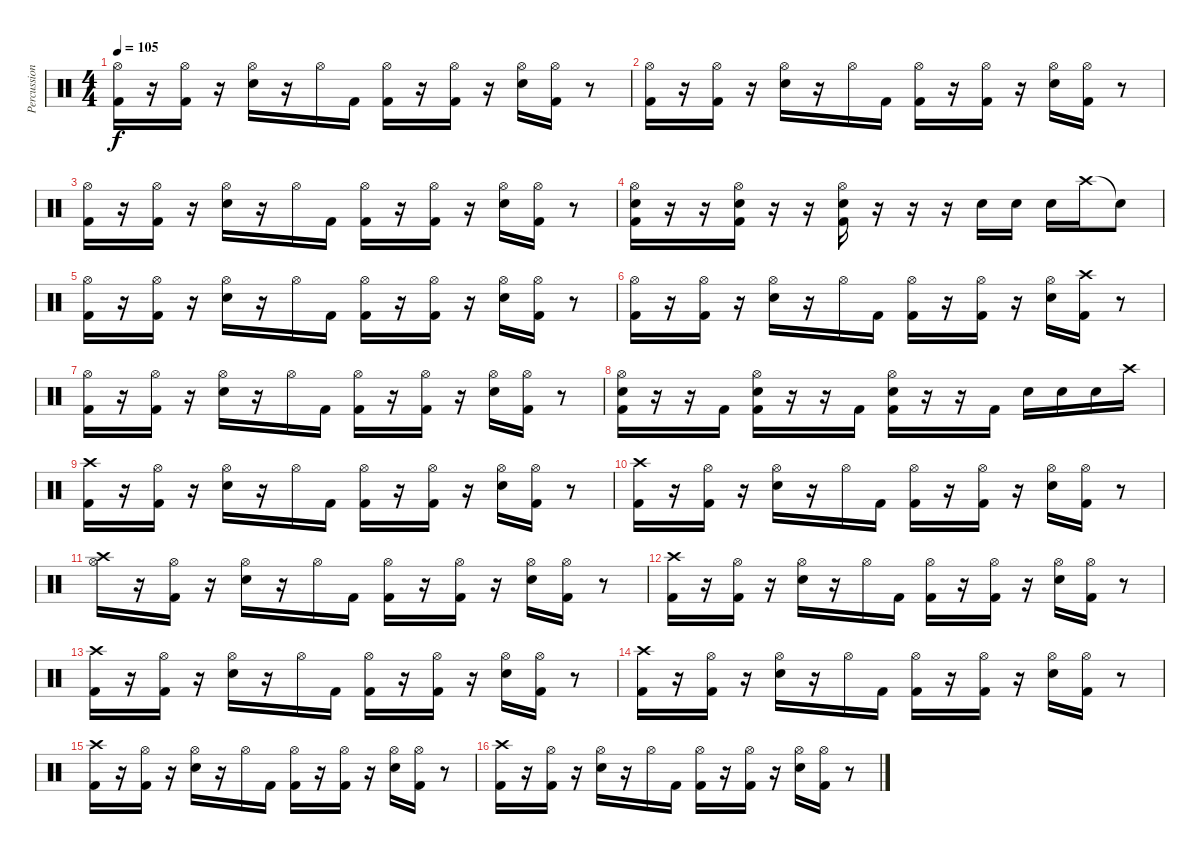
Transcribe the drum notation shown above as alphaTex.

\track ("Percussions" "Percussion") {instrument percussion}
\staff {score}
\articulation defaults
\ts (4 4)
\tempo 105
\clef neutral
\ks c
("Hi-Hat (open)" "Kick (hit) 2").16{dy f} r.16 ("Hi-Hat (open)" "Kick (hit) 2").16 r.16 ("Hi-Hat (open)" "Snare (hit) 2").16 r.16 "Hi-Hat (open)".16 "Kick (hit) 2".16 ("Kick (hit) 2" "Hi-Hat (open)").16 r.16 ("Kick (hit) 2" "Hi-Hat (open)").16 r.16 ("Hi-Hat (open)" "Snare (hit) 2").16 ("Kick (hit) 2" "Hi-Hat (open)").16 r.8 |
("Hi-Hat (open)" "Kick (hit) 2").16 r.16 ("Hi-Hat (open)" "Kick (hit) 2").16 r.16 ("Hi-Hat (open)" "Snare (hit) 2").16 r.16 "Hi-Hat (open)".16 "Kick (hit) 2".16 ("Kick (hit) 2" "Hi-Hat (open)").16 r.16 ("Kick (hit) 2" "Hi-Hat (open)").16 r.16 ("Hi-Hat (open)" "Snare (hit) 2").16 ("Kick (hit) 2" "Hi-Hat (open)").16 r.8 |
("Hi-Hat (open)" "Kick (hit) 2").16 r.16 ("Hi-Hat (open)" "Kick (hit) 2").16 r.16 ("Hi-Hat (open)" "Snare (hit) 2").16 r.16 "Hi-Hat (open)".16 "Kick (hit) 2".16 ("Kick (hit) 2" "Hi-Hat (open)").16 r.16 ("Kick (hit) 2" "Hi-Hat (open)").16 r.16 ("Hi-Hat (open)" "Snare (hit) 2").16 ("Kick (hit) 2" "Hi-Hat (open)").16 r.8 |
("Kick (hit) 2" "Snare (hit) 2" "Hi-Hat (open)").16 r.16 r.16 ("Kick (hit) 2" "Snare (hit) 2" "Hi-Hat (open)").16 r.16 r.16 ("Kick (hit) 2" "Snare (hit) 2" "Hi-Hat (open)").16 r.16 r.16 r.16 "Snare (hit) 2".16 "Snare (hit) 2".16 "Snare (hit) 2".16 "Crash high (hit)".16 "Snare (hit)"{t}.8 |
("Hi-Hat (open)" "Kick (hit) 2").16 r.16 ("Hi-Hat (open)" "Kick (hit) 2").16 r.16 ("Hi-Hat (open)" "Snare (hit) 2").16 r.16 "Hi-Hat (open)".16 "Kick (hit) 2".16 ("Kick (hit) 2" "Hi-Hat (open)").16 r.16 ("Kick (hit) 2" "Hi-Hat (open)").16 r.16 ("Hi-Hat (open)" "Snare (hit) 2").16 ("Hi-Hat (open)" "Kick (hit) 2").16 r.8 |
("Hi-Hat (open)" "Kick (hit) 2").16 r.16 ("Hi-Hat (open)" "Kick (hit) 2").16 r.16 ("Hi-Hat (open)" "Snare (hit) 2").16 r.16 "Hi-Hat (open)".16 "Kick (hit) 2".16 ("Kick (hit) 2" "Hi-Hat (open)").16 r.16 ("Kick (hit) 2" "Hi-Hat (open)").16 r.16 ("Hi-Hat (open)" "Snare (hit) 2").16 ("Kick (hit) 2" "Crash high (hit)").16 r.8 |
("Hi-Hat (open)" "Kick (hit) 2").16 r.16 ("Hi-Hat (open)" "Kick (hit) 2").16 r.16 ("Hi-Hat (open)" "Snare (hit) 2").16 r.16 "Hi-Hat (open)".16 "Kick (hit) 2".16 ("Kick (hit) 2" "Hi-Hat (open)").16 r.16 ("Kick (hit) 2" "Hi-Hat (open)").16 r.16 ("Hi-Hat (open)" "Snare (hit) 2").16 ("Kick (hit) 2" "Hi-Hat (open)").16 r.8 |
("Kick (hit) 2" "Snare (hit) 2" "Hi-Hat (open)").16 r.16 r.16 "Kick (hit) 2".16 ("Kick (hit) 2" "Snare (hit) 2" "Hi-Hat (open)").16 r.16 r.16 "Kick (hit) 2".16 ("Kick (hit) 2" "Snare (hit) 2" "Hi-Hat (open)").16 r.16 r.16 "Kick (hit) 2".16 "Snare (hit) 2".16 "Snare (hit) 2".16 "Snare (hit) 2".16 "Crash high (hit)".16 |
("Crash high (hit)" "Kick (hit) 2").16 r.16 ("Hi-Hat (open)" "Kick (hit) 2").16 r.16 ("Hi-Hat (open)" "Snare (hit) 2").16 r.16 "Hi-Hat (open)".16 "Kick (hit) 2".16 ("Kick (hit) 2" "Hi-Hat (open)").16 r.16 ("Kick (hit) 2" "Hi-Hat (open)").16 r.16 ("Hi-Hat (open)" "Snare (hit) 2").16 ("Kick (hit) 2" "Hi-Hat (open)").16 r.8 |
("Crash high (hit)" "Kick (hit) 2").16 r.16 ("Hi-Hat (open)" "Kick (hit) 2").16 r.16 ("Hi-Hat (open)" "Snare (hit) 2").16 r.16 "Hi-Hat (open)".16 "Kick (hit) 2".16 ("Kick (hit) 2" "Hi-Hat (open)").16 r.16 ("Kick (hit) 2" "Hi-Hat (open)").16 r.16 ("Hi-Hat (open)" "Snare (hit) 2").16 ("Kick (hit) 2" "Hi-Hat (open)").16 r.8 |
("Hi-Hat (open)" "Crash high (hit)").16 r.16 ("Hi-Hat (open)" "Kick (hit) 2").16 r.16 ("Hi-Hat (open)" "Snare (hit) 2").16 r.16 "Hi-Hat (open)".16 "Kick (hit) 2".16 ("Kick (hit) 2" "Hi-Hat (open)").16 r.16 ("Kick (hit) 2" "Hi-Hat (open)").16 r.16 ("Hi-Hat (open)" "Snare (hit) 2").16 ("Kick (hit) 2" "Hi-Hat (open)").16 r.8 |
("Crash high (hit)" "Kick (hit) 2").16 r.16 ("Hi-Hat (open)" "Kick (hit) 2").16 r.16 ("Hi-Hat (open)" "Snare (hit) 2").16 r.16 "Hi-Hat (open)".16 "Kick (hit) 2".16 ("Kick (hit) 2" "Hi-Hat (open)").16 r.16 ("Kick (hit) 2" "Hi-Hat (open)").16 r.16 ("Hi-Hat (open)" "Snare (hit) 2").16 ("Kick (hit) 2" "Hi-Hat (open)").16 r.8 |
("Crash high (hit)" "Kick (hit) 2").16 r.16 ("Hi-Hat (open)" "Kick (hit) 2").16 r.16 ("Hi-Hat (open)" "Snare (hit) 2").16 r.16 "Hi-Hat (open)".16 "Kick (hit) 2".16 ("Kick (hit) 2" "Hi-Hat (open)").16 r.16 ("Kick (hit) 2" "Hi-Hat (open)").16 r.16 ("Hi-Hat (open)" "Snare (hit) 2").16 ("Kick (hit) 2" "Hi-Hat (open)").16 r.8 |
("Crash high (hit)" "Kick (hit) 2").16 r.16 ("Hi-Hat (open)" "Kick (hit) 2").16 r.16 ("Hi-Hat (open)" "Snare (hit) 2").16 r.16 "Hi-Hat (open)".16 "Kick (hit) 2".16 ("Kick (hit) 2" "Hi-Hat (open)").16 r.16 ("Kick (hit) 2" "Hi-Hat (open)").16 r.16 ("Hi-Hat (open)" "Snare (hit) 2").16 ("Kick (hit) 2" "Hi-Hat (open)").16 r.8 |
("Crash high (hit)" "Kick (hit) 2").16 r.16 ("Hi-Hat (open)" "Kick (hit) 2").16 r.16 ("Hi-Hat (open)" "Snare (hit) 2").16 r.16 "Hi-Hat (open)".16 "Kick (hit) 2".16 ("Kick (hit) 2" "Hi-Hat (open)").16 r.16 ("Kick (hit) 2" "Hi-Hat (open)").16 r.16 ("Hi-Hat (open)" "Snare (hit) 2").16 ("Kick (hit) 2" "Hi-Hat (open)").16 r.8 |
("Crash high (hit)" "Kick (hit) 2").16 r.16 ("Hi-Hat (open)" "Kick (hit) 2").16 r.16 ("Hi-Hat (open)" "Snare (hit) 2").16 r.16 "Hi-Hat (open)".16 "Kick (hit) 2".16 ("Kick (hit) 2" "Hi-Hat (open)").16 r.16 ("Kick (hit) 2" "Hi-Hat (open)").16 r.16 ("Hi-Hat (open)" "Snare (hit) 2").16 ("Kick (hit) 2" "Hi-Hat (open)").16 r.8
